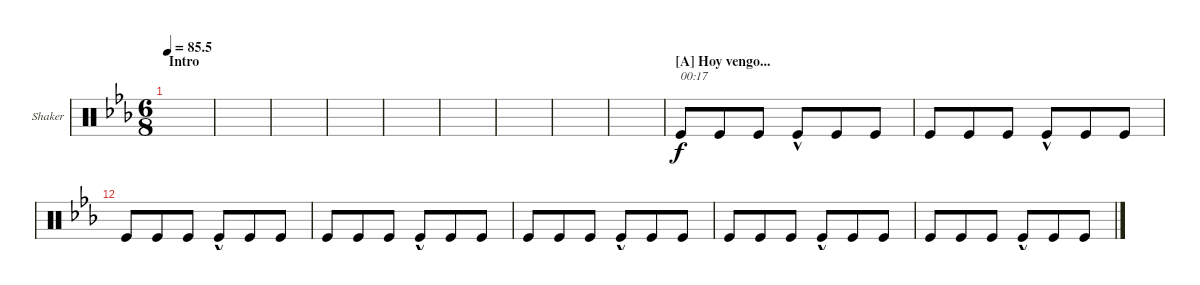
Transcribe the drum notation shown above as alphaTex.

\defaultSystemsLayout 4
\bracketExtendMode groupsimilarinstruments
\multiTrackTrackNamePolicy allsystems
\firstSystemTrackNameOrientation horizontal
\otherSystemsTrackNameOrientation horizontal
\defaultBarNumberDisplay FirstOfSystem
\track ("Shaker" "Shaker") {instrument percussion}
\staff {score}
\articulation defaults
\ts (6 8)
\section ("" "Intro")
\tempo
85.5
\accidentals auto
\clef neutral
\ottava regular
\simile none
\scale
0.527426
\ks eb
|
\scale
0.236287 |
\scale
0.236287 |
\scale
0.333333 |
\scale
0.333333 |
\scale
0.333333 |
\scale
0.333333 |
\scale
0.333333 |
\scale
0.333333 |
\section ("A" "Hoy vengo...")
\scale
0.333333 "Kick (hit)".8{txt "00:17"} "Kick (hit)".8 "Kick (hit)".8 "Kick (hit)"{hac}.8 "Kick (hit)".8 "Kick (hit)".8 |
\scale
0.333333 "Kick (hit)".8 "Kick (hit)".8 "Kick (hit)".8 "Kick (hit)"{hac}.8 "Kick (hit)".8 "Kick (hit)".8 |
\scale
0.333333 "Kick (hit)".8 "Kick (hit)".8 "Kick (hit)".8 "Kick (hit)"{hac}.8 "Kick (hit)".8 "Kick (hit)".8 |
\scale
0.333333 "Kick (hit)".8 "Kick (hit)".8 "Kick (hit)".8 "Kick (hit)"{hac}.8 "Kick (hit)".8 "Kick (hit)".8 |
\scale
0.333333 "Kick (hit)".8 "Kick (hit)".8 "Kick (hit)".8 "Kick (hit)"{hac}.8 "Kick (hit)".8 "Kick (hit)".8 |
\scale
0.333333 "Kick (hit)".8 "Kick (hit)".8 "Kick (hit)".8 "Kick (hit)"{hac}.8 "Kick (hit)".8 "Kick (hit)".8 |
\scale
0.333333 "Kick (hit)".8 "Kick (hit)".8 "Kick (hit)".8 "Kick (hit)"{hac}.8 "Kick (hit)".8 "Kick (hit)".8
